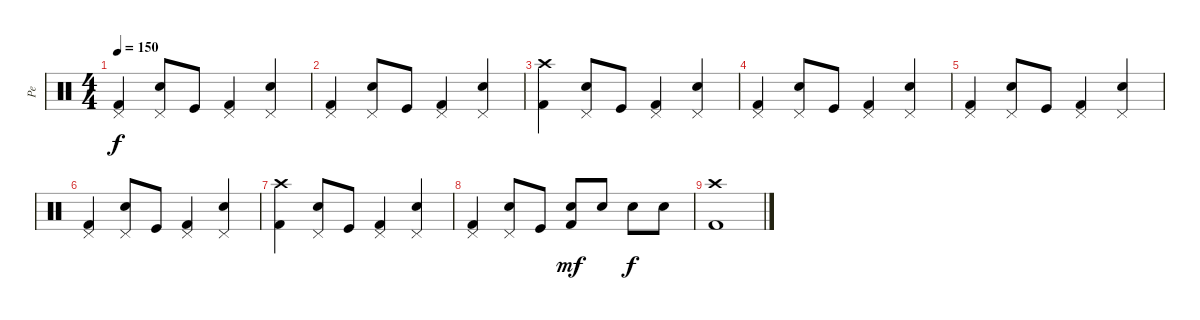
\track ("Pe" "Pe") {instrument percussion}
\staff {score}
\articulation defaults
\ts (4 4)
\tempo 150
\clef neutral
\ks c
("Kick (hit) 2" "Pedal Hi-Hat (hit)").4{dy f} ("Electric Snare (hit)" "Pedal Hi-Hat (hit)").8 "Kick (hit)".8 ("Kick (hit) 2" "Pedal Hi-Hat (hit)").4 ("Electric Snare (hit)" "Pedal Hi-Hat (hit)").4 |
("Kick (hit) 2" "Pedal Hi-Hat (hit)").4 ("Electric Snare (hit)" "Pedal Hi-Hat (hit)").8 "Kick (hit)".8 ("Kick (hit) 2" "Pedal Hi-Hat (hit)").4 ("Electric Snare (hit)" "Pedal Hi-Hat (hit)").4 |
("Kick (hit) 2" "Crash high (hit)").4 ("Electric Snare (hit)" "Pedal Hi-Hat (hit)").8 "Kick (hit)".8 ("Kick (hit) 2" "Pedal Hi-Hat (hit)").4 ("Electric Snare (hit)" "Pedal Hi-Hat (hit)").4 |
("Kick (hit) 2" "Pedal Hi-Hat (hit)").4 ("Electric Snare (hit)" "Pedal Hi-Hat (hit)").8 "Kick (hit)".8 ("Kick (hit) 2" "Pedal Hi-Hat (hit)").4 ("Electric Snare (hit)" "Pedal Hi-Hat (hit)").4 |
("Kick (hit) 2" "Pedal Hi-Hat (hit)").4 ("Electric Snare (hit)" "Pedal Hi-Hat (hit)").8 "Kick (hit)".8 ("Kick (hit) 2" "Pedal Hi-Hat (hit)").4 ("Electric Snare (hit)" "Pedal Hi-Hat (hit)").4 |
("Kick (hit) 2" "Pedal Hi-Hat (hit)").4 ("Electric Snare (hit)" "Pedal Hi-Hat (hit)").8 "Kick (hit)".8 ("Kick (hit) 2" "Pedal Hi-Hat (hit)").4 ("Electric Snare (hit)" "Pedal Hi-Hat (hit)").4 |
("Kick (hit) 2" "Crash high (hit)").4 ("Electric Snare (hit)" "Pedal Hi-Hat (hit)").8 "Kick (hit)".8 ("Kick (hit) 2" "Pedal Hi-Hat (hit)").4 ("Electric Snare (hit)" "Pedal Hi-Hat (hit)").4 |
("Kick (hit) 2" "Pedal Hi-Hat (hit)").4 ("Electric Snare (hit)" "Pedal Hi-Hat (hit)").8 "Kick (hit)".8 ("Kick (hit) 2" "Electric Snare (hit)").8{dy mf} "Electric Snare (hit)".8 "Electric Snare (hit)".8{dy f} "Electric Snare (hit)".8 |
("Kick (hit) 2" "Crash high (hit)").1
